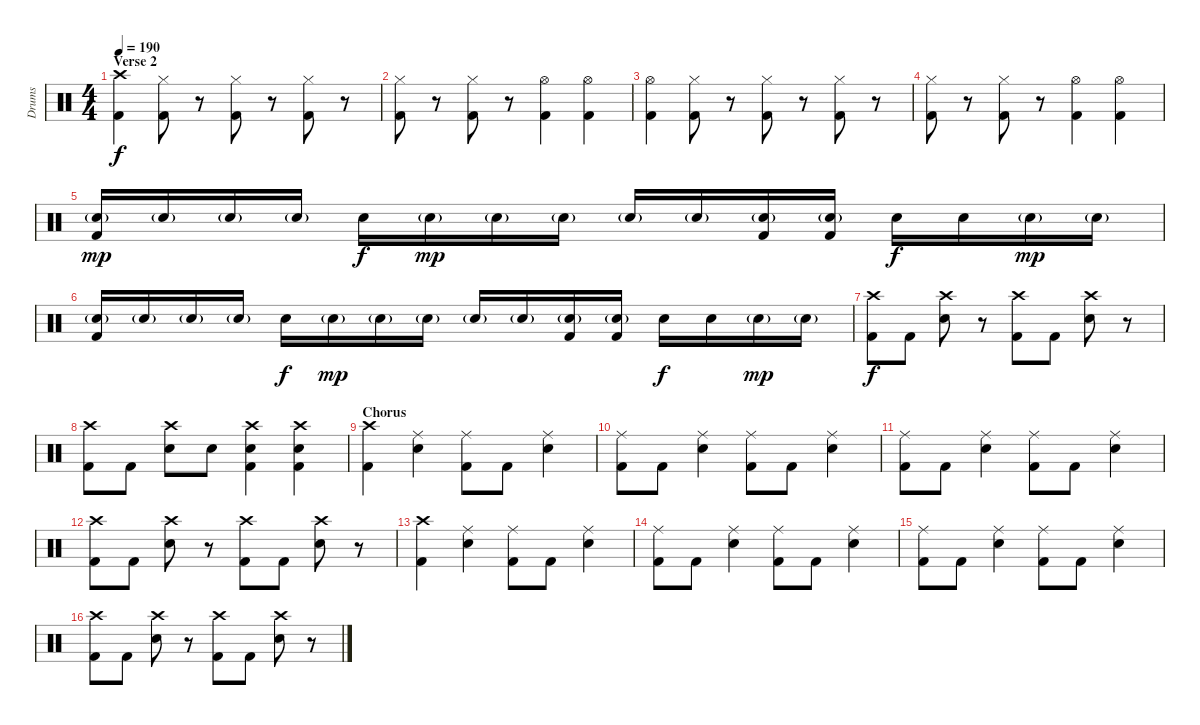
\track ("Drums" "Drums") {instrument percussion}
\staff {score}
\articulation defaults
\ts (4 4)
\section ("" "Verse 2")
\tempo 190
\clef neutral
\ks c
("Crash high (hit)" "Kick (hit) 2").4{dy f} ("Hi-Hat (closed)" "Kick (hit) 2").8 r.8 ("Hi-Hat (closed)" "Kick (hit) 2").8 r.8 ("Hi-Hat (closed)" "Kick (hit) 2").8 r.8 |
("Hi-Hat (closed)" "Kick (hit) 2").8 r.8 ("Hi-Hat (closed)" "Kick (hit) 2").8 r.8 ("Hi-Hat (open)" "Kick (hit) 2").4 ("Hi-Hat (open)" "Kick (hit) 2").4 |
("Hi-Hat (open)" "Kick (hit) 2").4 ("Hi-Hat (closed)" "Kick (hit) 2").8 r.8 ("Hi-Hat (closed)" "Kick (hit) 2").8 r.8 ("Hi-Hat (closed)" "Kick (hit) 2").8 r.8 |
("Hi-Hat (closed)" "Kick (hit) 2").8 r.8 ("Hi-Hat (closed)" "Kick (hit) 2").8 r.8 ("Hi-Hat (open)" "Kick (hit) 2").4 ("Hi-Hat (open)" "Kick (hit) 2").4 |
("Snare (hit) 2"{g} "Kick (hit) 2").16{dy mp} "Snare (hit) 2"{g}.16 "Snare (hit) 2"{g}.16 "Snare (hit) 2"{g}.16 "Snare (hit) 2".16{dy f} "Snare (hit) 2"{g}.16{dy mp} "Snare (hit) 2"{g}.16 "Snare (hit) 2"{g}.16 "Snare (hit) 2"{g}.16 "Snare (hit) 2"{g}.16 ("Snare (hit) 2"{g} "Kick (hit) 2").16 ("Snare (hit) 2"{g} "Kick (hit) 2").16 "Snare (hit) 2".16{dy f} "Snare (hit) 2".16 "Snare (hit) 2"{g}.16{dy mp} "Snare (hit) 2"{g}.16 |
("Snare (hit) 2"{g} "Kick (hit) 2").16 "Snare (hit) 2"{g}.16 "Snare (hit) 2"{g}.16 "Snare (hit) 2"{g}.16 "Snare (hit) 2".16{dy f} "Snare (hit) 2"{g}.16{dy mp} "Snare (hit) 2"{g}.16 "Snare (hit) 2"{g}.16 "Snare (hit) 2"{g}.16 "Snare (hit) 2"{g}.16 ("Snare (hit) 2"{g} "Kick (hit) 2").16 ("Snare (hit) 2"{g} "Kick (hit) 2").16 "Snare (hit) 2".16{dy f} "Snare (hit) 2".16 "Snare (hit) 2"{g}.16{dy mp} "Snare (hit) 2"{g}.16 |
("Crash high (hit)" "Kick (hit) 2").8{dy f} "Kick (hit) 2".8 ("Crash high (hit)" "Snare (hit) 2").8 r.8 ("Crash high (hit)" "Kick (hit) 2").8 "Kick (hit) 2".8 ("Crash high (hit)" "Snare (hit) 2").8 r.8 |
("Crash high (hit)" "Kick (hit) 2").8 "Kick (hit) 2".8 ("Crash high (hit)" "Snare (hit) 2").8 "Snare (hit) 2".8 ("Crash high (hit)" "Snare (hit) 2" "Kick (hit) 2").4 ("Crash high (hit)" "Snare (hit) 2" "Kick (hit) 2").4 |
\section ("" "Chorus")
("Crash high (hit)" "Kick (hit) 2").4 ("Ride (middle)" "Snare (hit) 2").4 ("Ride (middle)" "Kick (hit) 2").8 "Kick (hit) 2".8 ("Ride (middle)" "Snare (hit) 2").4 |
("Ride (middle)" "Kick (hit) 2").8 "Kick (hit) 2".8 ("Ride (middle)" "Snare (hit) 2").4 ("Ride (middle)" "Kick (hit) 2").8 "Kick (hit) 2".8 ("Ride (middle)" "Snare (hit) 2").4 |
("Ride (middle)" "Kick (hit) 2").8 "Kick (hit) 2".8 ("Ride (middle)" "Snare (hit) 2").4 ("Ride (middle)" "Kick (hit) 2").8 "Kick (hit) 2".8 ("Ride (middle)" "Snare (hit) 2").4 |
("Crash high (hit)" "Kick (hit) 2").8 "Kick (hit) 2".8 ("Crash high (hit)" "Snare (hit) 2").8 r.8 ("Crash high (hit)" "Kick (hit) 2").8 "Kick (hit) 2".8 ("Crash high (hit)" "Snare (hit) 2").8 r.8 |
("Crash high (hit)" "Kick (hit) 2").4 ("Ride (middle)" "Snare (hit) 2").4 ("Ride (middle)" "Kick (hit) 2").8 "Kick (hit) 2".8 ("Ride (middle)" "Snare (hit) 2").4 |
("Ride (middle)" "Kick (hit) 2").8 "Kick (hit) 2".8 ("Ride (middle)" "Snare (hit) 2").4 ("Ride (middle)" "Kick (hit) 2").8 "Kick (hit) 2".8 ("Ride (middle)" "Snare (hit) 2").4 |
("Ride (middle)" "Kick (hit) 2").8 "Kick (hit) 2".8 ("Ride (middle)" "Snare (hit) 2").4 ("Ride (middle)" "Kick (hit) 2").8 "Kick (hit) 2".8 ("Ride (middle)" "Snare (hit) 2").4 |
("Crash high (hit)" "Kick (hit) 2").8 "Kick (hit) 2".8 ("Crash high (hit)" "Snare (hit) 2").8 r.8 ("Crash high (hit)" "Kick (hit) 2").8 "Kick (hit) 2".8 ("Crash high (hit)" "Snare (hit) 2").8 r.8
